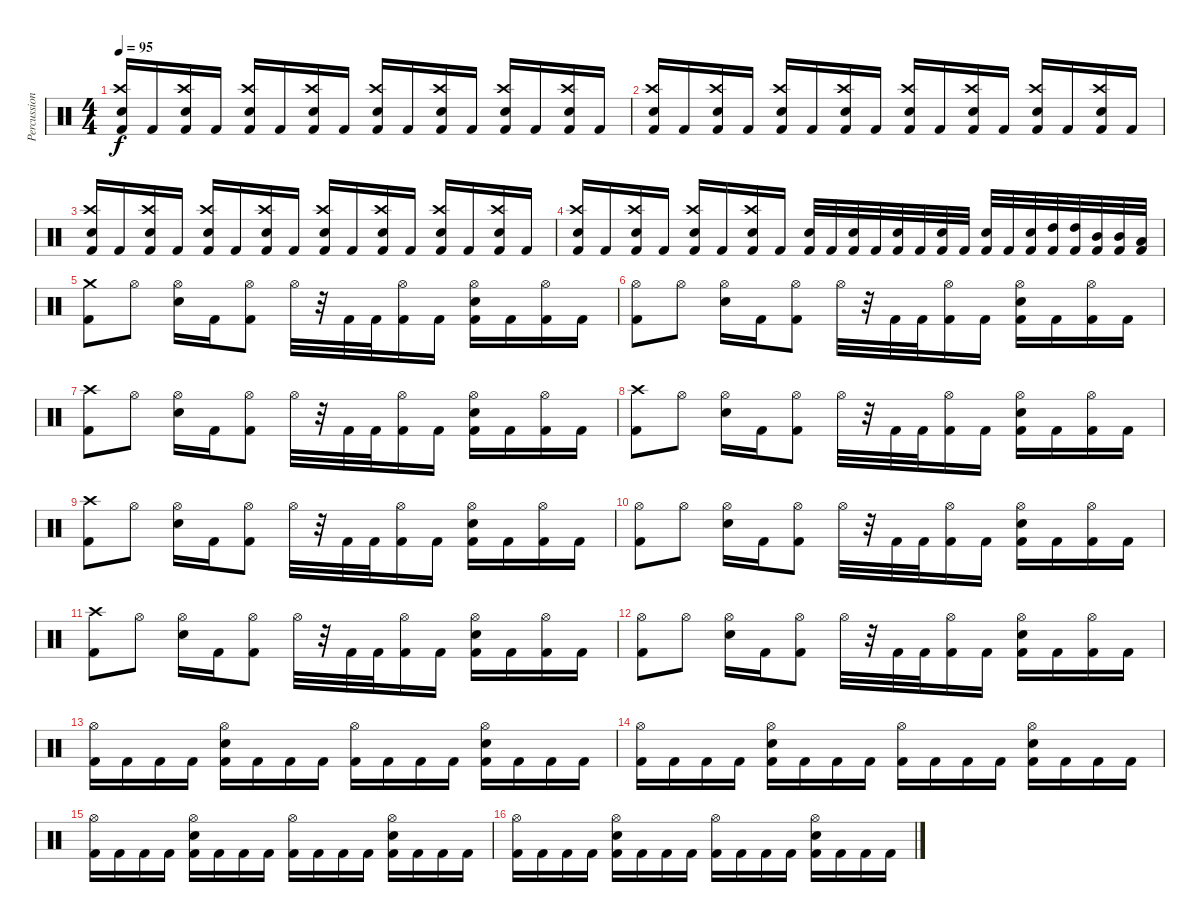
\track ("Percussion" "Percussion") {instrument percussion}
\staff {score}
\articulation defaults
\ts (4 4)
\tempo 95
\clef neutral
\ks c
("Kick (hit) 2" "Crash high (hit)" "Electric Snare (hit)").16{dy f} "Kick (hit) 2".16 ("Kick (hit) 2" "Crash high (hit)" "Electric Snare (hit)").16 "Kick (hit) 2".16 ("Kick (hit) 2" "Crash high (hit)" "Electric Snare (hit)").16 "Kick (hit) 2".16 ("Kick (hit) 2" "Crash high (hit)" "Electric Snare (hit)").16 "Kick (hit) 2".16 ("Kick (hit) 2" "Crash high (hit)" "Electric Snare (hit)").16 "Kick (hit) 2".16 ("Kick (hit) 2" "Crash high (hit)" "Electric Snare (hit)").16 "Kick (hit) 2".16 ("Kick (hit) 2" "Crash high (hit)" "Electric Snare (hit)").16 "Kick (hit) 2".16 ("Kick (hit) 2" "Crash high (hit)" "Electric Snare (hit)").16 "Kick (hit) 2".16 |
("Kick (hit) 2" "Crash high (hit)" "Electric Snare (hit)").16 "Kick (hit) 2".16 ("Kick (hit) 2" "Crash high (hit)" "Electric Snare (hit)").16 "Kick (hit) 2".16 ("Kick (hit) 2" "Crash high (hit)" "Electric Snare (hit)").16 "Kick (hit) 2".16 ("Kick (hit) 2" "Crash high (hit)" "Electric Snare (hit)").16 "Kick (hit) 2".16 ("Kick (hit) 2" "Crash high (hit)" "Electric Snare (hit)").16 "Kick (hit) 2".16 ("Kick (hit) 2" "Crash high (hit)" "Electric Snare (hit)").16 "Kick (hit) 2".16 ("Kick (hit) 2" "Crash high (hit)" "Electric Snare (hit)").16 "Kick (hit) 2".16 ("Kick (hit) 2" "Crash high (hit)" "Electric Snare (hit)").16 "Kick (hit) 2".16 |
("Kick (hit) 2" "Crash high (hit)" "Electric Snare (hit)").16 "Kick (hit) 2".16 ("Kick (hit) 2" "Crash high (hit)" "Electric Snare (hit)").16 "Kick (hit) 2".16 ("Kick (hit) 2" "Crash high (hit)" "Electric Snare (hit)").16 "Kick (hit) 2".16 ("Kick (hit) 2" "Crash high (hit)" "Electric Snare (hit)").16 "Kick (hit) 2".16 ("Kick (hit) 2" "Crash high (hit)" "Electric Snare (hit)").16 "Kick (hit) 2".16 ("Kick (hit) 2" "Crash high (hit)" "Electric Snare (hit)").16 "Kick (hit) 2".16 ("Kick (hit) 2" "Crash high (hit)" "Electric Snare (hit)").16 "Kick (hit) 2".16 ("Kick (hit) 2" "Crash high (hit)" "Electric Snare (hit)").16 "Kick (hit) 2".16 |
("Kick (hit) 2" "Crash high (hit)" "Electric Snare (hit)").16 "Kick (hit) 2".16 ("Kick (hit) 2" "Crash high (hit)" "Electric Snare (hit)").16 "Kick (hit) 2".16 ("Kick (hit) 2" "Crash high (hit)" "Electric Snare (hit)").16 "Kick (hit) 2".16 ("Kick (hit) 2" "Crash high (hit)" "Electric Snare (hit)").16 "Kick (hit) 2".16 ("Kick (hit) 2" "Electric Snare (hit)").32 "Kick (hit) 2".32 ("Kick (hit) 2" "Electric Snare (hit)").32 "Kick (hit) 2".32 ("Kick (hit) 2" "Electric Snare (hit)").32 "Kick (hit) 2".32 ("Kick (hit) 2" "Electric Snare (hit)").32 "Kick (hit) 2".32 ("Kick (hit) 2" "Electric Snare (hit)").32 "Kick (hit) 2".32 ("Kick (hit) 2" "Electric Snare (hit)").32 ("Kick (hit) 2" "High Tom (hit)").32 ("Kick (hit) 2" "High Tom (hit)").32 ("Kick (hit) 2" "Mid Tom (hit)").32 ("Kick (hit) 2" "Mid Tom (hit)").32 ("Kick (hit) 2" "Low Tom (hit)").32 |
("Crash medium (hit)" "Kick (hit) 2").8 "Hi-Hat (open)".8 ("Hi-Hat (open)" "Electric Snare (hit)").16 "Kick (hit) 2".16 ("Hi-Hat (open)" "Kick (hit) 2").8 "Hi-Hat (open)".32 r.32 "Kick (hit) 2".32 "Kick (hit) 2".32 ("Kick (hit) 2" "Hi-Hat (open)").16 "Kick (hit) 2".16 ("Kick (hit) 2" "Hi-Hat (open)" "Electric Snare (hit)").16 "Kick (hit) 2".16 ("Kick (hit) 2" "Hi-Hat (open)").16 "Kick (hit) 2".16 |
("Hi-Hat (open)" "Kick (hit) 2").8 "Hi-Hat (open)".8 ("Hi-Hat (open)" "Electric Snare (hit)").16 "Kick (hit) 2".16 ("Hi-Hat (open)" "Kick (hit) 2").8 "Hi-Hat (open)".32 r.32 "Kick (hit) 2".32 "Kick (hit) 2".32 ("Kick (hit) 2" "Hi-Hat (open)").16 "Kick (hit) 2".16 ("Kick (hit) 2" "Hi-Hat (open)" "Electric Snare (hit)").16 "Kick (hit) 2".16 ("Kick (hit) 2" "Hi-Hat (open)").16 "Kick (hit) 2".16 |
("Crash high (hit)" "Kick (hit) 2").8 "Hi-Hat (open)".8 ("Hi-Hat (open)" "Electric Snare (hit)").16 "Kick (hit) 2".16 ("Hi-Hat (open)" "Kick (hit) 2").8 "Hi-Hat (open)".32 r.32 "Kick (hit) 2".32 "Kick (hit) 2".32 ("Kick (hit) 2" "Hi-Hat (open)").16 "Kick (hit) 2".16 ("Kick (hit) 2" "Hi-Hat (open)" "Electric Snare (hit)").16 "Kick (hit) 2".16 ("Kick (hit) 2" "Hi-Hat (open)").16 "Kick (hit) 2".16 |
("Crash high (hit)" "Kick (hit) 2").8 "Hi-Hat (open)".8 ("Hi-Hat (open)" "Electric Snare (hit)").16 "Kick (hit) 2".16 ("Hi-Hat (open)" "Kick (hit) 2").8 "Hi-Hat (open)".32 r.32 "Kick (hit) 2".32 "Kick (hit) 2".32 ("Kick (hit) 2" "Hi-Hat (open)").16 "Kick (hit) 2".16 ("Kick (hit) 2" "Hi-Hat (open)" "Electric Snare (hit)").16 "Kick (hit) 2".16 ("Kick (hit) 2" "Hi-Hat (open)").16 "Kick (hit) 2".16 |
("Crash high (hit)" "Kick (hit) 2").8 "Hi-Hat (open)".8 ("Hi-Hat (open)" "Electric Snare (hit)").16 "Kick (hit) 2".16 ("Hi-Hat (open)" "Kick (hit) 2").8 "Hi-Hat (open)".32 r.32 "Kick (hit) 2".32 "Kick (hit) 2".32 ("Kick (hit) 2" "Hi-Hat (open)").16 "Kick (hit) 2".16 ("Kick (hit) 2" "Hi-Hat (open)" "Electric Snare (hit)").16 "Kick (hit) 2".16 ("Kick (hit) 2" "Hi-Hat (open)").16 "Kick (hit) 2".16 |
("Hi-Hat (open)" "Kick (hit) 2").8 "Hi-Hat (open)".8 ("Hi-Hat (open)" "Electric Snare (hit)").16 "Kick (hit) 2".16 ("Hi-Hat (open)" "Kick (hit) 2").8 "Hi-Hat (open)".32 r.32 "Kick (hit) 2".32 "Kick (hit) 2".32 ("Kick (hit) 2" "Hi-Hat (open)").16 "Kick (hit) 2".16 ("Kick (hit) 2" "Hi-Hat (open)" "Electric Snare (hit)").16 "Kick (hit) 2".16 ("Kick (hit) 2" "Hi-Hat (open)").16 "Kick (hit) 2".16 |
("Crash high (hit)" "Kick (hit) 2").8 "Hi-Hat (open)".8 ("Hi-Hat (open)" "Electric Snare (hit)").16 "Kick (hit) 2".16 ("Hi-Hat (open)" "Kick (hit) 2").8 "Hi-Hat (open)".32 r.32 "Kick (hit) 2".32 "Kick (hit) 2".32 ("Kick (hit) 2" "Hi-Hat (open)").16 "Kick (hit) 2".16 ("Kick (hit) 2" "Hi-Hat (open)" "Electric Snare (hit)").16 "Kick (hit) 2".16 ("Kick (hit) 2" "Hi-Hat (open)").16 "Kick (hit) 2".16 |
("Hi-Hat (open)" "Kick (hit) 2").8 "Hi-Hat (open)".8 ("Hi-Hat (open)" "Electric Snare (hit)").16 "Kick (hit) 2".16 ("Hi-Hat (open)" "Kick (hit) 2").8 "Hi-Hat (open)".32 r.32 "Kick (hit) 2".32 "Kick (hit) 2".32 ("Kick (hit) 2" "Hi-Hat (open)").16 "Kick (hit) 2".16 ("Kick (hit) 2" "Hi-Hat (open)" "Electric Snare (hit)").16 "Kick (hit) 2".16 ("Kick (hit) 2" "Hi-Hat (open)").16 "Kick (hit) 2".16 |
("Kick (hit) 2" "Hi-Hat (open)").16 "Kick (hit) 2".16 "Kick (hit) 2".16 "Kick (hit) 2".16 ("Kick (hit) 2" "Hi-Hat (open)" "Electric Snare (hit)").16 "Kick (hit) 2".16 "Kick (hit) 2".16 "Kick (hit) 2".16 ("Kick (hit) 2" "Hi-Hat (open)").16 "Kick (hit) 2".16 "Kick (hit) 2".16 "Kick (hit) 2".16 ("Kick (hit) 2" "Hi-Hat (open)" "Electric Snare (hit)").16 "Kick (hit) 2".16 "Kick (hit) 2".16 "Kick (hit) 2".16 |
("Kick (hit) 2" "Hi-Hat (open)").16 "Kick (hit) 2".16 "Kick (hit) 2".16 "Kick (hit) 2".16 ("Kick (hit) 2" "Hi-Hat (open)" "Electric Snare (hit)").16 "Kick (hit) 2".16 "Kick (hit) 2".16 "Kick (hit) 2".16 ("Kick (hit) 2" "Hi-Hat (open)").16 "Kick (hit) 2".16 "Kick (hit) 2".16 "Kick (hit) 2".16 ("Kick (hit) 2" "Hi-Hat (open)" "Electric Snare (hit)").16 "Kick (hit) 2".16 "Kick (hit) 2".16 "Kick (hit) 2".16 |
("Kick (hit) 2" "Hi-Hat (open)").16 "Kick (hit) 2".16 "Kick (hit) 2".16 "Kick (hit) 2".16 ("Kick (hit) 2" "Hi-Hat (open)" "Electric Snare (hit)").16 "Kick (hit) 2".16 "Kick (hit) 2".16 "Kick (hit) 2".16 ("Kick (hit) 2" "Hi-Hat (open)").16 "Kick (hit) 2".16 "Kick (hit) 2".16 "Kick (hit) 2".16 ("Kick (hit) 2" "Hi-Hat (open)" "Electric Snare (hit)").16 "Kick (hit) 2".16 "Kick (hit) 2".16 "Kick (hit) 2".16 |
("Kick (hit) 2" "Hi-Hat (open)").16 "Kick (hit) 2".16 "Kick (hit) 2".16 "Kick (hit) 2".16 ("Kick (hit) 2" "Hi-Hat (open)" "Electric Snare (hit)").16 "Kick (hit) 2".16 "Kick (hit) 2".16 "Kick (hit) 2".16 ("Kick (hit) 2" "Hi-Hat (open)").16 "Kick (hit) 2".16 "Kick (hit) 2".16 "Kick (hit) 2".16 ("Kick (hit) 2" "Hi-Hat (open)" "Electric Snare (hit)").16 "Kick (hit) 2".16 "Kick (hit) 2".16 "Kick (hit) 2".16
